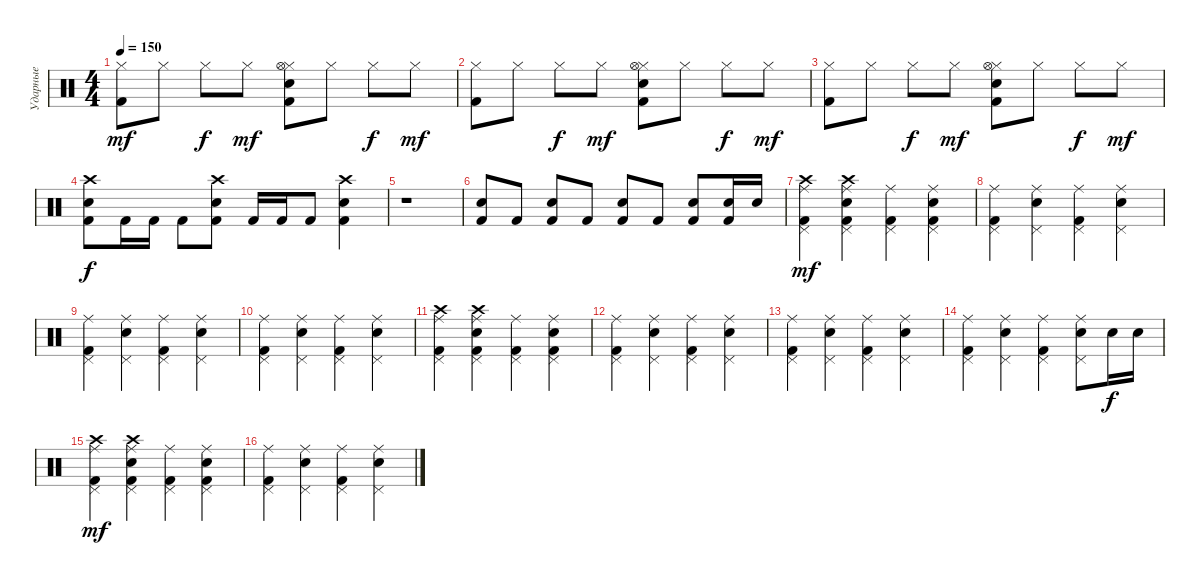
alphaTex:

\track ("Ударные" "Ударные") {instrument percussion}
\staff {score}
\articulation defaults
\ts (4 4)
\tempo 150
\clef neutral
\ks c
("Kick (hit) 2" "Hi-Hat (closed)").8{dy mf} "Hi-Hat (closed)".8 "Hi-Hat (closed)".8{dy f} "Hi-Hat (closed)".8{dy mf} ("Kick (hit) 2" "Snare (hit) 2" "Hi-Hat (closed)" "Hi-Hat (open)").8 "Hi-Hat (closed)".8 "Hi-Hat (closed)".8{dy f} "Hi-Hat (closed)".8{dy mf} |
("Kick (hit) 2" "Hi-Hat (closed)").8 "Hi-Hat (closed)".8 "Hi-Hat (closed)".8{dy f} "Hi-Hat (closed)".8{dy mf} ("Kick (hit) 2" "Snare (hit) 2" "Hi-Hat (closed)" "Hi-Hat (open)").8 "Hi-Hat (closed)".8 "Hi-Hat (closed)".8{dy f} "Hi-Hat (closed)".8{dy mf} |
("Kick (hit) 2" "Hi-Hat (closed)").8 "Hi-Hat (closed)".8 "Hi-Hat (closed)".8{dy f} "Hi-Hat (closed)".8{dy mf} ("Kick (hit) 2" "Snare (hit) 2" "Hi-Hat (closed)" "Hi-Hat (open)").8 "Hi-Hat (closed)".8 "Hi-Hat (closed)".8{dy f} "Hi-Hat (closed)".8{dy mf} |
("Kick (hit) 2" "Snare (hit) 2" "Crash high (hit)").8{dy f} "Kick (hit) 2".16 "Kick (hit) 2".16 "Kick (hit) 2".8 ("Kick (hit) 2" "Snare (hit) 2" "Crash high (hit)").8 "Kick (hit) 2".16 "Kick (hit) 2".16 "Kick (hit) 2".8 ("Kick (hit) 2" "Snare (hit) 2" "Crash high (hit)").4 |
r.1 |
("Kick (hit) 2" "Snare (hit) 2").8 "Kick (hit) 2".8 ("Kick (hit) 2" "Snare (hit) 2").8 "Kick (hit) 2".8 ("Kick (hit) 2" "Snare (hit) 2").8 "Kick (hit) 2".8 ("Kick (hit) 2" "Snare (hit) 2").8 ("Kick (hit) 2" "Snare (hit) 2").16 "Snare (hit) 2".16 |
("Kick (hit) 2" "Crash high (hit)" "Pedal Hi-Hat (hit)" "Ride (middle)").4{dy mf} ("Kick (hit) 2" "Snare (hit) 2" "Crash high (hit)" "Pedal Hi-Hat (hit)" "Ride (middle)").4 ("Kick (hit) 2" "Pedal Hi-Hat (hit)" "Ride (middle)").4 ("Kick (hit) 2" "Snare (hit) 2" "Pedal Hi-Hat (hit)" "Ride (middle)").4 |
("Kick (hit) 2" "Pedal Hi-Hat (hit)" "Ride (middle)").4 ("Snare (hit) 2" "Pedal Hi-Hat (hit)" "Ride (middle)").4 ("Kick (hit) 2" "Pedal Hi-Hat (hit)" "Ride (middle)").4 ("Snare (hit) 2" "Pedal Hi-Hat (hit)" "Ride (middle)").4 |
("Kick (hit) 2" "Pedal Hi-Hat (hit)" "Ride (middle)").4 ("Snare (hit) 2" "Pedal Hi-Hat (hit)" "Ride (middle)").4 ("Kick (hit) 2" "Pedal Hi-Hat (hit)" "Ride (middle)").4 ("Snare (hit) 2" "Pedal Hi-Hat (hit)" "Ride (middle)").4 |
("Kick (hit) 2" "Pedal Hi-Hat (hit)" "Ride (middle)").4 ("Snare (hit) 2" "Pedal Hi-Hat (hit)" "Ride (middle)").4 ("Kick (hit) 2" "Pedal Hi-Hat (hit)" "Ride (middle)").4 ("Snare (hit) 2" "Pedal Hi-Hat (hit)" "Ride (middle)").4 |
("Kick (hit) 2" "Crash high (hit)" "Pedal Hi-Hat (hit)" "Ride (middle)").4 ("Kick (hit) 2" "Snare (hit) 2" "Crash high (hit)" "Pedal Hi-Hat (hit)" "Ride (middle)").4 ("Kick (hit) 2" "Pedal Hi-Hat (hit)" "Ride (middle)").4 ("Kick (hit) 2" "Snare (hit) 2" "Pedal Hi-Hat (hit)" "Ride (middle)").4 |
("Kick (hit) 2" "Pedal Hi-Hat (hit)" "Ride (middle)").4 ("Snare (hit) 2" "Pedal Hi-Hat (hit)" "Ride (middle)").4 ("Kick (hit) 2" "Pedal Hi-Hat (hit)" "Ride (middle)").4 ("Snare (hit) 2" "Pedal Hi-Hat (hit)" "Ride (middle)").4 |
("Kick (hit) 2" "Pedal Hi-Hat (hit)" "Ride (middle)").4 ("Snare (hit) 2" "Pedal Hi-Hat (hit)" "Ride (middle)").4 ("Kick (hit) 2" "Pedal Hi-Hat (hit)" "Ride (middle)").4 ("Snare (hit) 2" "Pedal Hi-Hat (hit)" "Ride (middle)").4 |
("Kick (hit) 2" "Pedal Hi-Hat (hit)" "Ride (middle)").4 ("Snare (hit) 2" "Pedal Hi-Hat (hit)" "Ride (middle)").4 ("Kick (hit) 2" "Pedal Hi-Hat (hit)" "Ride (middle)").4 ("Snare (hit) 2" "Pedal Hi-Hat (hit)" "Ride (middle)").8 "Snare (hit) 2".16{dy f} "Snare (hit) 2".16 |
("Kick (hit) 2" "Crash high (hit)" "Pedal Hi-Hat (hit)" "Ride (middle)").4{dy mf} ("Kick (hit) 2" "Snare (hit) 2" "Crash high (hit)" "Pedal Hi-Hat (hit)" "Ride (middle)").4 ("Kick (hit) 2" "Pedal Hi-Hat (hit)" "Ride (middle)").4 ("Kick (hit) 2" "Snare (hit) 2" "Pedal Hi-Hat (hit)" "Ride (middle)").4 |
("Kick (hit) 2" "Pedal Hi-Hat (hit)" "Ride (middle)").4 ("Snare (hit) 2" "Pedal Hi-Hat (hit)" "Ride (middle)").4 ("Kick (hit) 2" "Pedal Hi-Hat (hit)" "Ride (middle)").4 ("Snare (hit) 2" "Pedal Hi-Hat (hit)" "Ride (middle)").4
